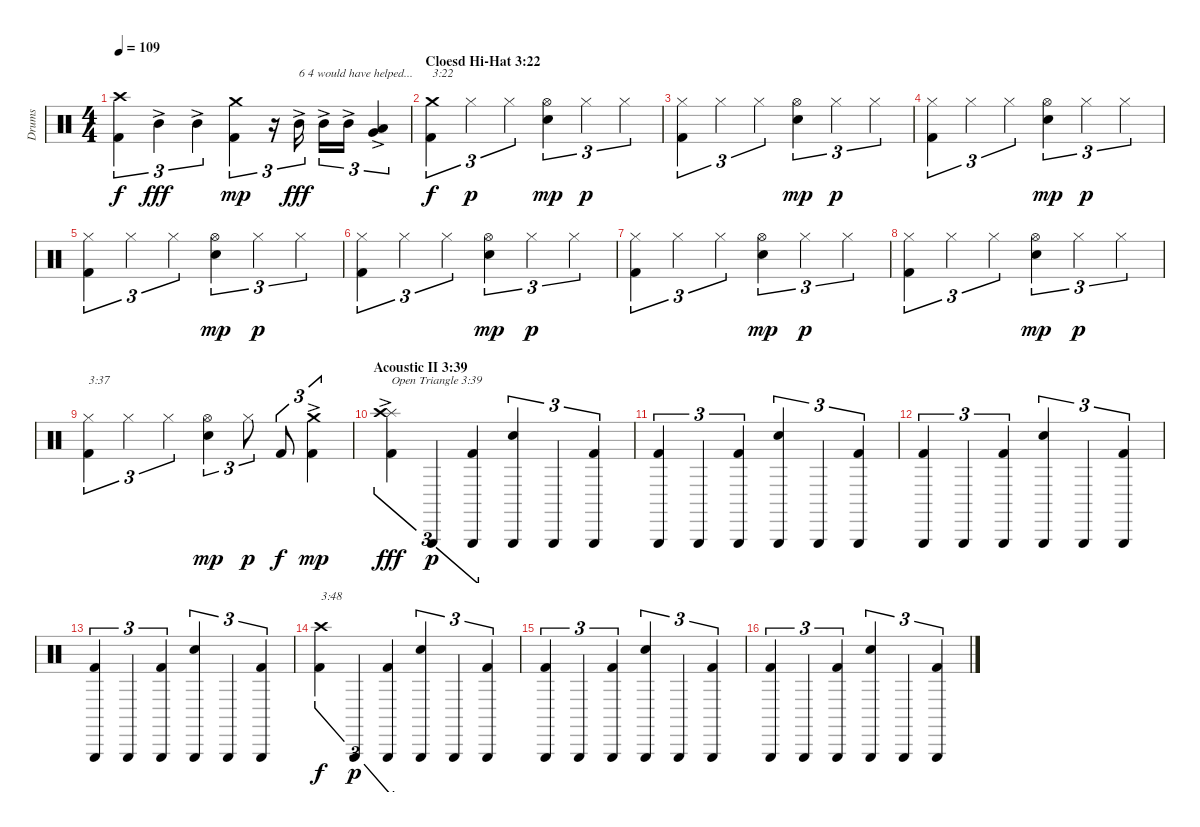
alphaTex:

\track ("Drums" "Drums") {instrument percussion}
\staff {score}
\articulation defaults
\ts (4 4)
\tempo 109
\clef neutral
\ks c
("Kick (hit) 2" "Crash high (hit)").4{tu (3 2) dy f} "Mid Tom (hit)"{ac}.4{tu (3 2) dy fff} "Mid Tom (hit)"{ac}.4{tu (3 2)} ("Kick (hit) 2" "Crash medium (hit)").4{tu (3 2) dy mp} r.16{tu (3 2)} "Mid Tom (hit)"{ac}.16{tu (3 2) txt "6 4 would have helped..." dy fff} "Mid Tom (hit)"{ac}.16{tu (3 2)} "Mid Tom (hit)"{ac}.16{tu (3 2)} ("Low Tom (hit)"{ac} "Very Low Tom (hit)"{ac}).4{tu (3 2)} |
\section ("" "Cloesd Hi-Hat 3:22")
("Kick (hit) 2" "Crash medium (hit)").4{tu (3 2) txt "3:22" dy f} "Hi-Hat (closed)".4{tu (3 2) dy p} "Hi-Hat (closed)".4{tu (3 2)} ("Electric Snare (hit)" "Hi-Hat (open)").4{tu (3 2) dy mp} "Hi-Hat (closed)".4{tu (3 2) dy p} "Hi-Hat (closed)".4{tu (3 2)} |
("Kick (hit) 2" "Hi-Hat (closed)").4{tu (3 2)} "Hi-Hat (closed)".4{tu (3 2)} "Hi-Hat (closed)".4{tu (3 2)} ("Electric Snare (hit)" "Hi-Hat (open)").4{tu (3 2) dy mp} "Hi-Hat (closed)".4{tu (3 2) dy p} "Hi-Hat (closed)".4{tu (3 2)} |
("Kick (hit) 2" "Hi-Hat (closed)").4{tu (3 2)} "Hi-Hat (closed)".4{tu (3 2)} "Hi-Hat (closed)".4{tu (3 2)} ("Electric Snare (hit)" "Hi-Hat (open)").4{tu (3 2) dy mp} "Hi-Hat (closed)".4{tu (3 2) dy p} "Hi-Hat (closed)".4{tu (3 2)} |
("Kick (hit) 2" "Hi-Hat (closed)").4{tu (3 2)} "Hi-Hat (closed)".4{tu (3 2)} "Hi-Hat (closed)".4{tu (3 2)} ("Electric Snare (hit)" "Hi-Hat (open)").4{tu (3 2) dy mp} "Hi-Hat (closed)".4{tu (3 2) dy p} "Hi-Hat (closed)".4{tu (3 2)} |
("Kick (hit) 2" "Hi-Hat (closed)").4{tu (3 2)} "Hi-Hat (closed)".4{tu (3 2)} "Hi-Hat (closed)".4{tu (3 2)} ("Electric Snare (hit)" "Hi-Hat (open)").4{tu (3 2) dy mp} "Hi-Hat (closed)".4{tu (3 2) dy p} "Hi-Hat (closed)".4{tu (3 2)} |
("Kick (hit) 2" "Hi-Hat (closed)").4{tu (3 2)} "Hi-Hat (closed)".4{tu (3 2)} "Hi-Hat (closed)".4{tu (3 2)} ("Electric Snare (hit)" "Hi-Hat (open)").4{tu (3 2) dy mp} "Hi-Hat (closed)".4{tu (3 2) dy p} "Hi-Hat (closed)".4{tu (3 2)} |
("Kick (hit) 2" "Hi-Hat (closed)").4{tu (3 2)} "Hi-Hat (closed)".4{tu (3 2)} "Hi-Hat (closed)".4{tu (3 2)} ("Electric Snare (hit)" "Hi-Hat (open)").4{tu (3 2) dy mp} "Hi-Hat (closed)".4{tu (3 2) dy p} "Hi-Hat (closed)".4{tu (3 2)} |
("Kick (hit) 2" "Hi-Hat (closed)").4{tu (3 2) txt "3:37"} "Hi-Hat (closed)".4{tu (3 2)} "Hi-Hat (closed)".4{tu (3 2)} ("Electric Snare (hit)" "Hi-Hat (open)").4{tu (3 2) dy mp} "Hi-Hat (closed)".8{tu (3 2) dy p} "Kick (hit) 2".8{tu (3 2) dy f} ("Kick (hit) 2" "Crash medium (hit)"{ac}).4{tu (3 2) dy mp} |
\section ("" "Acoustic II 3:39")
("Kick (hit) 2" "Splash (hit)" "Crash high (hit)"{ac}).4{tu (3 2) txt "Open Triangle 3:39" dy fff} "Triangle (hit)".4{tu (3 2) dy p} ("Kick (hit) 2" "Triangle (hit)").4{tu (3 2)} ("Electric Snare (hit)" "Triangle (hit)").4{tu (3 2)} "Triangle (hit)".4{tu (3 2)} ("Kick (hit) 2" "Triangle (hit)").4{tu (3 2)} |
("Kick (hit) 2" "Triangle (hit)").4{tu (3 2)} "Triangle (hit)".4{tu (3 2)} ("Kick (hit) 2" "Triangle (hit)").4{tu (3 2)} ("Electric Snare (hit)" "Triangle (hit)").4{tu (3 2)} "Triangle (hit)".4{tu (3 2)} ("Kick (hit) 2" "Triangle (hit)").4{tu (3 2)} |
("Kick (hit) 2" "Triangle (hit)").4{tu (3 2)} "Triangle (hit)".4{tu (3 2)} ("Kick (hit) 2" "Triangle (hit)").4{tu (3 2)} ("Electric Snare (hit)" "Triangle (hit)").4{tu (3 2)} "Triangle (hit)".4{tu (3 2)} ("Kick (hit) 2" "Triangle (hit)").4{tu (3 2)} |
("Kick (hit) 2" "Triangle (hit)").4{tu (3 2)} "Triangle (hit)".4{tu (3 2)} ("Kick (hit) 2" "Triangle (hit)").4{tu (3 2)} ("Electric Snare (hit)" "Triangle (hit)").4{tu (3 2)} "Triangle (hit)".4{tu (3 2)} ("Kick (hit) 2" "Triangle (hit)").4{tu (3 2)} |
("Kick (hit) 2" "Crash high (hit)").4{tu (3 2) txt "3:48" dy f} "Triangle (hit)".4{tu (3 2) dy p} ("Kick (hit) 2" "Triangle (hit)").4{tu (3 2)} ("Electric Snare (hit)" "Triangle (hit)").4{tu (3 2)} "Triangle (hit)".4{tu (3 2)} ("Kick (hit) 2" "Triangle (hit)").4{tu (3 2)} |
("Kick (hit) 2" "Triangle (hit)").4{tu (3 2)} "Triangle (hit)".4{tu (3 2)} ("Kick (hit) 2" "Triangle (hit)").4{tu (3 2)} ("Electric Snare (hit)" "Triangle (hit)").4{tu (3 2)} "Triangle (hit)".4{tu (3 2)} ("Kick (hit) 2" "Triangle (hit)").4{tu (3 2)} |
("Kick (hit) 2" "Triangle (hit)").4{tu (3 2)} "Triangle (hit)".4{tu (3 2)} ("Kick (hit) 2" "Triangle (hit)").4{tu (3 2)} ("Electric Snare (hit)" "Triangle (hit)").4{tu (3 2)} "Triangle (hit)".4{tu (3 2)} ("Kick (hit) 2" "Triangle (hit)").4{tu (3 2)}
